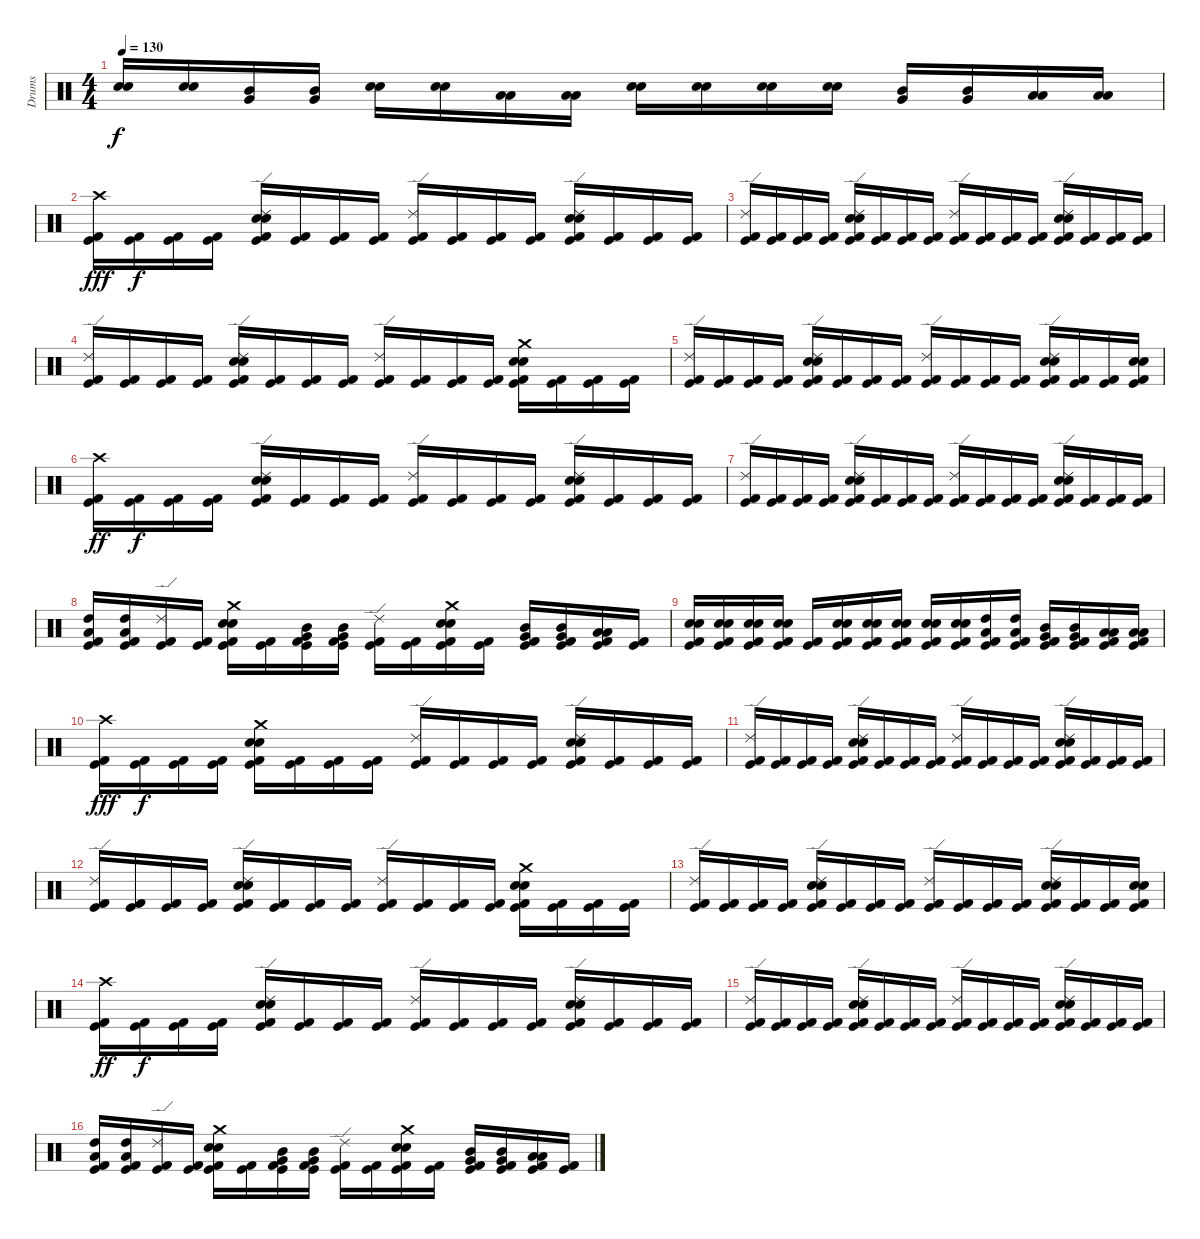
\track ("Drums" "Drums") {instrument percussion}
\staff {score}
\articulation defaults
\ts (4 4)
\tempo 130
\clef neutral
\ks c
("Electric Snare (hit)" "Snare (hit) 2").16{dy f} ("Electric Snare (hit)" "Snare (hit) 2").16 ("Mid Tom (hit)" "Very Low Tom (hit)").16 ("Mid Tom (hit)" "Very Low Tom (hit)").16 ("Electric Snare (hit)" "Snare (hit) 2").16 ("Electric Snare (hit)" "Snare (hit) 2").16 ("Low Tom (hit)" "Low Floor Tom (hit)").16 ("Low Tom (hit)" "Low Floor Tom (hit)").16 ("Electric Snare (hit)" "Snare (hit) 2").16 ("Electric Snare (hit)" "Snare (hit) 2").16 ("Electric Snare (hit)" "Snare (hit) 2").16 ("Electric Snare (hit)" "Snare (hit) 2").16 ("Mid Tom (hit)" "Very Low Tom (hit)").16 ("Mid Tom (hit)" "Very Low Tom (hit)").16 ("Low Tom (hit)" "Low Floor Tom (hit)").16 ("Low Tom (hit)" "Low Floor Tom (hit)").16 |
("Crash high (hit)" "Kick (hit) 2" "Kick (hit)").16{dy fff} ("Kick (hit) 2" "Kick (hit)").16{dy f} ("Kick (hit) 2" "Kick (hit)").16 ("Kick (hit) 2" "Kick (hit)").16 ("Ride (edge) 2" "Electric Snare (hit)" "Snare (hit) 2" "Kick (hit) 2" "Kick (hit)").16 ("Kick (hit) 2" "Kick (hit)").16 ("Kick (hit) 2" "Kick (hit)").16 ("Kick (hit) 2" "Kick (hit)").16 ("Ride (edge) 2" "Kick (hit) 2" "Kick (hit)").16 ("Kick (hit) 2" "Kick (hit)").16 ("Kick (hit) 2" "Kick (hit)").16 ("Kick (hit) 2" "Kick (hit)").16 ("Ride (edge) 2" "Electric Snare (hit)" "Snare (hit) 2" "Kick (hit) 2" "Kick (hit)").16 ("Kick (hit) 2" "Kick (hit)").16 ("Kick (hit) 2" "Kick (hit)").16 ("Kick (hit) 2" "Kick (hit)").16 |
("Ride (edge) 2" "Kick (hit) 2" "Kick (hit)").16 ("Kick (hit) 2" "Kick (hit)").16 ("Kick (hit) 2" "Kick (hit)").16 ("Kick (hit) 2" "Kick (hit)").16 ("Ride (edge) 2" "Electric Snare (hit)" "Snare (hit) 2" "Kick (hit) 2" "Kick (hit)").16 ("Kick (hit) 2" "Kick (hit)").16 ("Kick (hit) 2" "Kick (hit)").16 ("Kick (hit) 2" "Kick (hit)").16 ("Ride (edge) 2" "Kick (hit) 2" "Kick (hit)").16 ("Kick (hit) 2" "Kick (hit)").16 ("Kick (hit) 2" "Kick (hit)").16 ("Kick (hit) 2" "Kick (hit)").16 ("Ride (edge) 2" "Electric Snare (hit)" "Snare (hit) 2" "Kick (hit) 2" "Kick (hit)").16 ("Kick (hit) 2" "Kick (hit)").16 ("Kick (hit) 2" "Kick (hit)").16 ("Kick (hit) 2" "Kick (hit)").16 |
("Ride (edge) 2" "Kick (hit) 2" "Kick (hit)").16 ("Kick (hit) 2" "Kick (hit)").16 ("Kick (hit) 2" "Kick (hit)").16 ("Kick (hit) 2" "Kick (hit)").16 ("Ride (edge) 2" "Electric Snare (hit)" "Snare (hit) 2" "Kick (hit) 2" "Kick (hit)").16 ("Kick (hit) 2" "Kick (hit)").16 ("Kick (hit) 2" "Kick (hit)").16 ("Kick (hit) 2" "Kick (hit)").16 ("Ride (edge) 2" "Kick (hit) 2" "Kick (hit)").16 ("Kick (hit) 2" "Kick (hit)").16 ("Kick (hit) 2" "Kick (hit)").16 ("Kick (hit) 2" "Kick (hit)").16 ("Crash medium (hit)" "Electric Snare (hit)" "Snare (hit) 2" "Kick (hit) 2" "Kick (hit)").16 ("Kick (hit) 2" "Kick (hit)").16 ("Kick (hit) 2" "Kick (hit)").16 ("Kick (hit) 2" "Kick (hit)").16 |
("Ride (edge) 2" "Kick (hit) 2" "Kick (hit)").16 ("Kick (hit) 2" "Kick (hit)").16 ("Kick (hit) 2" "Kick (hit)").16 ("Kick (hit) 2" "Kick (hit)").16 ("Ride (edge) 2" "Electric Snare (hit)" "Snare (hit) 2" "Kick (hit) 2" "Kick (hit)").16 ("Kick (hit) 2" "Kick (hit)").16 ("Kick (hit) 2" "Kick (hit)").16 ("Kick (hit) 2" "Kick (hit)").16 ("Ride (edge) 2" "Kick (hit) 2" "Kick (hit)").16 ("Kick (hit) 2" "Kick (hit)").16 ("Kick (hit) 2" "Kick (hit)").16 ("Kick (hit) 2" "Kick (hit)").16 ("Ride (edge) 2" "Electric Snare (hit)" "Snare (hit) 2" "Kick (hit) 2" "Kick (hit)").16 ("Kick (hit) 2" "Kick (hit)").16 ("Kick (hit) 2" "Kick (hit)").16 ("Electric Snare (hit)" "Snare (hit) 2" "Kick (hit) 2" "Kick (hit)").16 |
("Crash high (hit)" "Kick (hit) 2" "Kick (hit)").16{dy ff} ("Kick (hit) 2" "Kick (hit)").16{dy f} ("Kick (hit) 2" "Kick (hit)").16 ("Kick (hit) 2" "Kick (hit)").16 ("Ride (edge) 2" "Electric Snare (hit)" "Snare (hit) 2" "Kick (hit) 2" "Kick (hit)").16 ("Kick (hit) 2" "Kick (hit)").16 ("Kick (hit) 2" "Kick (hit)").16 ("Kick (hit) 2" "Kick (hit)").16 ("Ride (edge) 2" "Kick (hit) 2" "Kick (hit)").16 ("Kick (hit) 2" "Kick (hit)").16 ("Kick (hit) 2" "Kick (hit)").16 ("Kick (hit) 2" "Kick (hit)").16 ("Ride (edge) 2" "Electric Snare (hit)" "Snare (hit) 2" "Kick (hit) 2" "Kick (hit)").16 ("Kick (hit) 2" "Kick (hit)").16 ("Kick (hit) 2" "Kick (hit)").16 ("Kick (hit) 2" "Kick (hit)").16 |
("Ride (edge) 2" "Kick (hit) 2" "Kick (hit)").16 ("Kick (hit) 2" "Kick (hit)").16 ("Kick (hit) 2" "Kick (hit)").16 ("Kick (hit) 2" "Kick (hit)").16 ("Ride (edge) 2" "Electric Snare (hit)" "Snare (hit) 2" "Kick (hit) 2" "Kick (hit)").16 ("Kick (hit) 2" "Kick (hit)").16 ("Kick (hit) 2" "Kick (hit)").16 ("Kick (hit) 2" "Kick (hit)").16 ("Ride (edge) 2" "Kick (hit) 2" "Kick (hit)").16 ("Kick (hit) 2" "Kick (hit)").16 ("Kick (hit) 2" "Kick (hit)").16 ("Kick (hit) 2" "Kick (hit)").16 ("Ride (edge) 2" "Electric Snare (hit)" "Snare (hit) 2" "Kick (hit) 2" "Kick (hit)").16 ("Kick (hit) 2" "Kick (hit)").16 ("Kick (hit) 2" "Kick (hit)").16 ("Kick (hit) 2" "Kick (hit)").16 |
("High Tom (hit)" "Low Tom (hit)" "Kick (hit) 2" "Kick (hit)").16 ("High Tom (hit)" "Low Tom (hit)" "Kick (hit) 2" "Kick (hit)").16 ("Ride (edge) 2" "Kick (hit) 2" "Kick (hit)").16 ("Kick (hit) 2" "Kick (hit)").16 ("Crash medium (hit)" "Electric Snare (hit)" "Snare (hit) 2" "Kick (hit) 2" "Kick (hit)").16 ("Kick (hit) 2" "Kick (hit)").16 ("Mid Tom (hit)" "Very Low Tom (hit)" "Kick (hit) 2" "Kick (hit)").16 ("Mid Tom (hit)" "Very Low Tom (hit)" "Kick (hit) 2" "Kick (hit)").16 ("Ride (edge) 2" "Kick (hit) 2" "Kick (hit)").16 ("Kick (hit) 2" "Kick (hit)").16 ("Crash medium (hit)" "Electric Snare (hit)" "Snare (hit) 2" "Kick (hit) 2" "Kick (hit)").16 ("Kick (hit) 2" "Kick (hit)").16 ("Mid Tom (hit)" "Very Low Tom (hit)" "Kick (hit) 2" "Kick (hit)").16 ("Mid Tom (hit)" "Very Low Tom (hit)" "Kick (hit) 2" "Kick (hit)").16 ("Low Tom (hit)" "Low Floor Tom (hit)" "Kick (hit) 2" "Kick (hit)").16 ("Kick (hit) 2" "Kick (hit)").16 |
("Electric Snare (hit)" "Snare (hit) 2" "Kick (hit) 2" "Kick (hit)").16 ("Electric Snare (hit)" "Snare (hit) 2" "Kick (hit) 2" "Kick (hit)").16 ("Electric Snare (hit)" "Snare (hit) 2" "Kick (hit) 2" "Kick (hit)").16 ("Electric Snare (hit)" "Snare (hit) 2" "Kick (hit) 2" "Kick (hit)").16 ("Kick (hit) 2" "Kick (hit)").16 ("Electric Snare (hit)" "Snare (hit) 2" "Kick (hit) 2" "Kick (hit)").16 ("Electric Snare (hit)" "Snare (hit) 2" "Kick (hit) 2" "Kick (hit)").16 ("Electric Snare (hit)" "Snare (hit) 2" "Kick (hit) 2" "Kick (hit)").16 ("Electric Snare (hit)" "Snare (hit) 2" "Kick (hit) 2" "Kick (hit)").16 ("Electric Snare (hit)" "Snare (hit) 2" "Kick (hit) 2" "Kick (hit)").16 ("High Tom (hit)" "Low Tom (hit)" "Kick (hit) 2" "Kick (hit)").16 ("High Tom (hit)" "Low Tom (hit)" "Kick (hit) 2" "Kick (hit)").16 ("Mid Tom (hit)" "Very Low Tom (hit)" "Kick (hit) 2" "Kick (hit)").16 ("Mid Tom (hit)" "Very Low Tom (hit)" "Kick (hit) 2" "Kick (hit)").16 ("Low Tom (hit)" "Low Floor Tom (hit)" "Kick (hit) 2" "Kick (hit)").16 ("Low Tom (hit)" "Low Floor Tom (hit)" "Kick (hit) 2" "Kick (hit)").16 |
("Crash high (hit)" "Kick (hit) 2" "Kick (hit)").16{dy fff} ("Kick (hit) 2" "Kick (hit)").16{dy f} ("Kick (hit) 2" "Kick (hit)").16 ("Kick (hit) 2" "Kick (hit)").16 ("Crash medium (hit)" "Electric Snare (hit)" "Snare (hit) 2" "Kick (hit) 2" "Kick (hit)").16 ("Kick (hit) 2" "Kick (hit)").16 ("Kick (hit) 2" "Kick (hit)").16 ("Kick (hit) 2" "Kick (hit)").16 ("Ride (edge) 2" "Kick (hit) 2" "Kick (hit)").16 ("Kick (hit) 2" "Kick (hit)").16 ("Kick (hit) 2" "Kick (hit)").16 ("Kick (hit) 2" "Kick (hit)").16 ("Ride (edge) 2" "Electric Snare (hit)" "Snare (hit) 2" "Kick (hit) 2" "Kick (hit)").16 ("Kick (hit) 2" "Kick (hit)").16 ("Kick (hit) 2" "Kick (hit)").16 ("Kick (hit) 2" "Kick (hit)").16 |
("Ride (edge) 2" "Kick (hit) 2" "Kick (hit)").16 ("Kick (hit) 2" "Kick (hit)").16 ("Kick (hit) 2" "Kick (hit)").16 ("Kick (hit) 2" "Kick (hit)").16 ("Ride (edge) 2" "Electric Snare (hit)" "Snare (hit) 2" "Kick (hit) 2" "Kick (hit)").16 ("Kick (hit) 2" "Kick (hit)").16 ("Kick (hit) 2" "Kick (hit)").16 ("Kick (hit) 2" "Kick (hit)").16 ("Ride (edge) 2" "Kick (hit) 2" "Kick (hit)").16 ("Kick (hit) 2" "Kick (hit)").16 ("Kick (hit) 2" "Kick (hit)").16 ("Kick (hit) 2" "Kick (hit)").16 ("Ride (edge) 2" "Electric Snare (hit)" "Snare (hit) 2" "Kick (hit) 2" "Kick (hit)").16 ("Kick (hit) 2" "Kick (hit)").16 ("Kick (hit) 2" "Kick (hit)").16 ("Kick (hit) 2" "Kick (hit)").16 |
("Ride (edge) 2" "Kick (hit) 2" "Kick (hit)").16 ("Kick (hit) 2" "Kick (hit)").16 ("Kick (hit) 2" "Kick (hit)").16 ("Kick (hit) 2" "Kick (hit)").16 ("Ride (edge) 2" "Electric Snare (hit)" "Snare (hit) 2" "Kick (hit) 2" "Kick (hit)").16 ("Kick (hit) 2" "Kick (hit)").16 ("Kick (hit) 2" "Kick (hit)").16 ("Kick (hit) 2" "Kick (hit)").16 ("Ride (edge) 2" "Kick (hit) 2" "Kick (hit)").16 ("Kick (hit) 2" "Kick (hit)").16 ("Kick (hit) 2" "Kick (hit)").16 ("Kick (hit) 2" "Kick (hit)").16 ("Crash medium (hit)" "Electric Snare (hit)" "Snare (hit) 2" "Kick (hit) 2" "Kick (hit)").16 ("Kick (hit) 2" "Kick (hit)").16 ("Kick (hit) 2" "Kick (hit)").16 ("Kick (hit) 2" "Kick (hit)").16 |
("Ride (edge) 2" "Kick (hit) 2" "Kick (hit)").16 ("Kick (hit) 2" "Kick (hit)").16 ("Kick (hit) 2" "Kick (hit)").16 ("Kick (hit) 2" "Kick (hit)").16 ("Ride (edge) 2" "Electric Snare (hit)" "Snare (hit) 2" "Kick (hit) 2" "Kick (hit)").16 ("Kick (hit) 2" "Kick (hit)").16 ("Kick (hit) 2" "Kick (hit)").16 ("Kick (hit) 2" "Kick (hit)").16 ("Ride (edge) 2" "Kick (hit) 2" "Kick (hit)").16 ("Kick (hit) 2" "Kick (hit)").16 ("Kick (hit) 2" "Kick (hit)").16 ("Kick (hit) 2" "Kick (hit)").16 ("Ride (edge) 2" "Electric Snare (hit)" "Snare (hit) 2" "Kick (hit) 2" "Kick (hit)").16 ("Kick (hit) 2" "Kick (hit)").16 ("Kick (hit) 2" "Kick (hit)").16 ("Electric Snare (hit)" "Snare (hit) 2" "Kick (hit) 2" "Kick (hit)").16 |
("Crash high (hit)" "Kick (hit) 2" "Kick (hit)").16{dy ff} ("Kick (hit) 2" "Kick (hit)").16{dy f} ("Kick (hit) 2" "Kick (hit)").16 ("Kick (hit) 2" "Kick (hit)").16 ("Ride (edge) 2" "Electric Snare (hit)" "Snare (hit) 2" "Kick (hit) 2" "Kick (hit)").16 ("Kick (hit) 2" "Kick (hit)").16 ("Kick (hit) 2" "Kick (hit)").16 ("Kick (hit) 2" "Kick (hit)").16 ("Ride (edge) 2" "Kick (hit) 2" "Kick (hit)").16 ("Kick (hit) 2" "Kick (hit)").16 ("Kick (hit) 2" "Kick (hit)").16 ("Kick (hit) 2" "Kick (hit)").16 ("Ride (edge) 2" "Electric Snare (hit)" "Snare (hit) 2" "Kick (hit) 2" "Kick (hit)").16 ("Kick (hit) 2" "Kick (hit)").16 ("Kick (hit) 2" "Kick (hit)").16 ("Kick (hit) 2" "Kick (hit)").16 |
("Ride (edge) 2" "Kick (hit) 2" "Kick (hit)").16 ("Kick (hit) 2" "Kick (hit)").16 ("Kick (hit) 2" "Kick (hit)").16 ("Kick (hit) 2" "Kick (hit)").16 ("Ride (edge) 2" "Electric Snare (hit)" "Snare (hit) 2" "Kick (hit) 2" "Kick (hit)").16 ("Kick (hit) 2" "Kick (hit)").16 ("Kick (hit) 2" "Kick (hit)").16 ("Kick (hit) 2" "Kick (hit)").16 ("Ride (edge) 2" "Kick (hit) 2" "Kick (hit)").16 ("Kick (hit) 2" "Kick (hit)").16 ("Kick (hit) 2" "Kick (hit)").16 ("Kick (hit) 2" "Kick (hit)").16 ("Ride (edge) 2" "Electric Snare (hit)" "Snare (hit) 2" "Kick (hit) 2" "Kick (hit)").16 ("Kick (hit) 2" "Kick (hit)").16 ("Kick (hit) 2" "Kick (hit)").16 ("Kick (hit) 2" "Kick (hit)").16 |
("High Tom (hit)" "Low Tom (hit)" "Kick (hit) 2" "Kick (hit)").16 ("High Tom (hit)" "Low Tom (hit)" "Kick (hit) 2" "Kick (hit)").16 ("Ride (edge) 2" "Kick (hit) 2" "Kick (hit)").16 ("Kick (hit) 2" "Kick (hit)").16 ("Crash medium (hit)" "Electric Snare (hit)" "Snare (hit) 2" "Kick (hit) 2" "Kick (hit)").16 ("Kick (hit) 2" "Kick (hit)").16 ("Mid Tom (hit)" "Very Low Tom (hit)" "Kick (hit) 2" "Kick (hit)").16 ("Mid Tom (hit)" "Very Low Tom (hit)" "Kick (hit) 2" "Kick (hit)").16 ("Ride (edge) 2" "Kick (hit) 2" "Kick (hit)").16 ("Kick (hit) 2" "Kick (hit)").16 ("Crash medium (hit)" "Electric Snare (hit)" "Snare (hit) 2" "Kick (hit) 2" "Kick (hit)").16 ("Kick (hit) 2" "Kick (hit)").16 ("Mid Tom (hit)" "Very Low Tom (hit)" "Kick (hit) 2" "Kick (hit)").16 ("Mid Tom (hit)" "Very Low Tom (hit)" "Kick (hit) 2" "Kick (hit)").16 ("Low Tom (hit)" "Low Floor Tom (hit)" "Kick (hit) 2" "Kick (hit)").16 ("Kick (hit) 2" "Kick (hit)").16
